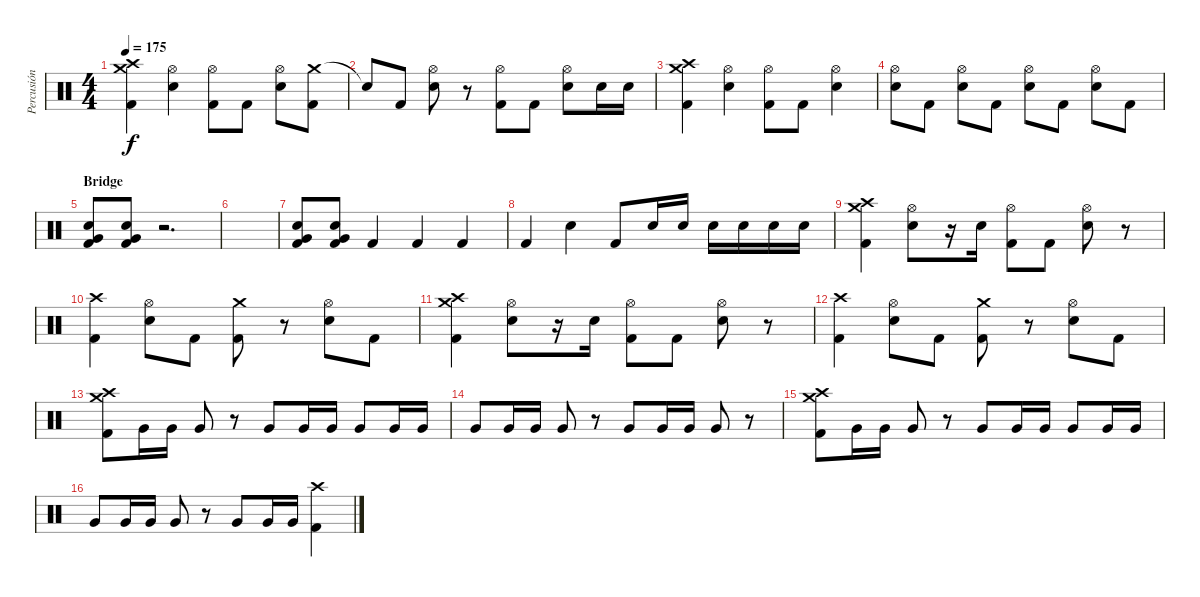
\track ("Percusión" "Percusión") {instrument percussion}
\staff {score}
\articulation defaults
\ts (4 4)
\tempo 175
\clef neutral
\ks c
("Crash high (hit)" "Crash medium (hit)" "Kick (hit) 2").4{dy f} ("Hi-Hat (open)" "Electric Snare (hit)").4 ("Hi-Hat (open)" "Kick (hit) 2").8 "Kick (hit) 2".8 ("Hi-Hat (open)" "Electric Snare (hit)").8 ("Crash medium (hit)" "Kick (hit) 2").8 |
"Snare (hit)"{t}.8 "Kick (hit) 2".8 ("Hi-Hat (open)" "Electric Snare (hit)").8 r.8 ("Hi-Hat (open)" "Kick (hit) 2").8 "Kick (hit) 2".8 ("Hi-Hat (open)" "Electric Snare (hit)").8 "Electric Snare (hit)".16 "Electric Snare (hit)".16 |
("Crash high (hit)" "Crash medium (hit)" "Kick (hit) 2").4 ("Hi-Hat (open)" "Electric Snare (hit)").4 ("Hi-Hat (open)" "Kick (hit) 2").8 "Kick (hit) 2".8 ("Hi-Hat (open)" "Electric Snare (hit)").4 |
("Hi-Hat (open)" "Electric Snare (hit)").8 "Kick (hit) 2".8 ("Hi-Hat (open)" "Electric Snare (hit)").8 "Kick (hit) 2".8 ("Hi-Hat (open)" "Electric Snare (hit)").8 "Kick (hit) 2".8 ("Hi-Hat (open)" "Electric Snare (hit)").8 "Kick (hit) 2".8 |
\section ("" "Bridge")
("Very Low Tom (hit)" "Electric Snare (hit)" "Kick (hit) 2").8 ("Very Low Tom (hit)" "Electric Snare (hit)" "Kick (hit) 2").8 r.2{d} |
|
("Very Low Tom (hit)" "Electric Snare (hit)" "Kick (hit) 2").8 ("Very Low Tom (hit)" "Electric Snare (hit)" "Kick (hit) 2").8 "Kick (hit) 2".4 "Kick (hit) 2".4 "Kick (hit) 2".4 |
"Kick (hit) 2".4 "Electric Snare (hit)".4 "Kick (hit) 2".8 "Electric Snare (hit)".16 "Electric Snare (hit)".16 "Electric Snare (hit)".16 "Electric Snare (hit)".16 "Electric Snare (hit)".16 "Electric Snare (hit)".16 |
("Crash high (hit)" "Crash medium (hit)" "Kick (hit) 2").4 ("Hi-Hat (open)" "Electric Snare (hit)").8 r.16 "Electric Snare (hit)".16 ("Hi-Hat (open)" "Kick (hit) 2").8 "Kick (hit) 2".8 ("Hi-Hat (open)" "Electric Snare (hit)").8 r.8 |
("Crash high (hit)" "Kick (hit) 2").4 ("Hi-Hat (open)" "Electric Snare (hit)").8 "Kick (hit) 2".8 ("Crash medium (hit)" "Kick (hit) 2").8 r.8 ("Hi-Hat (open)" "Electric Snare (hit)").8 "Kick (hit) 2".8 |
("Crash high (hit)" "Crash medium (hit)" "Kick (hit) 2").4 ("Hi-Hat (open)" "Electric Snare (hit)").8 r.16 "Electric Snare (hit)".16 ("Hi-Hat (open)" "Kick (hit) 2").8 "Kick (hit) 2".8 ("Hi-Hat (open)" "Electric Snare (hit)").8 r.8 |
("Crash high (hit)" "Kick (hit) 2").4 ("Hi-Hat (open)" "Electric Snare (hit)").8 "Kick (hit) 2".8 ("Crash medium (hit)" "Kick (hit) 2").8 r.8 ("Hi-Hat (open)" "Electric Snare (hit)").8 "Kick (hit) 2".8 |
("Crash high (hit)" "Crash medium (hit)" "Kick (hit) 2").8 "Very Low Tom (hit)".16 "Very Low Tom (hit)".16 "Very Low Tom (hit)".8 r.8 "Very Low Tom (hit)".8 "Very Low Tom (hit)".16 "Very Low Tom (hit)".16 "Very Low Tom (hit)".8 "Very Low Tom (hit)".16 "Very Low Tom (hit)".16 |
"Very Low Tom (hit)".8 "Very Low Tom (hit)".16 "Very Low Tom (hit)".16 "Very Low Tom (hit)".8 r.8 "Very Low Tom (hit)".8 "Very Low Tom (hit)".16 "Very Low Tom (hit)".16 "Very Low Tom (hit)".8 r.8 |
("Crash high (hit)" "Crash medium (hit)" "Kick (hit) 2").8 "Very Low Tom (hit)".16 "Very Low Tom (hit)".16 "Very Low Tom (hit)".8 r.8 "Very Low Tom (hit)".8 "Very Low Tom (hit)".16 "Very Low Tom (hit)".16 "Very Low Tom (hit)".8 "Very Low Tom (hit)".16 "Very Low Tom (hit)".16 |
"Very Low Tom (hit)".8 "Very Low Tom (hit)".16 "Very Low Tom (hit)".16 "Very Low Tom (hit)".8 r.8 "Very Low Tom (hit)".8 "Very Low Tom (hit)".16 "Very Low Tom (hit)".16 ("Crash high (hit)" "Kick (hit) 2").4
